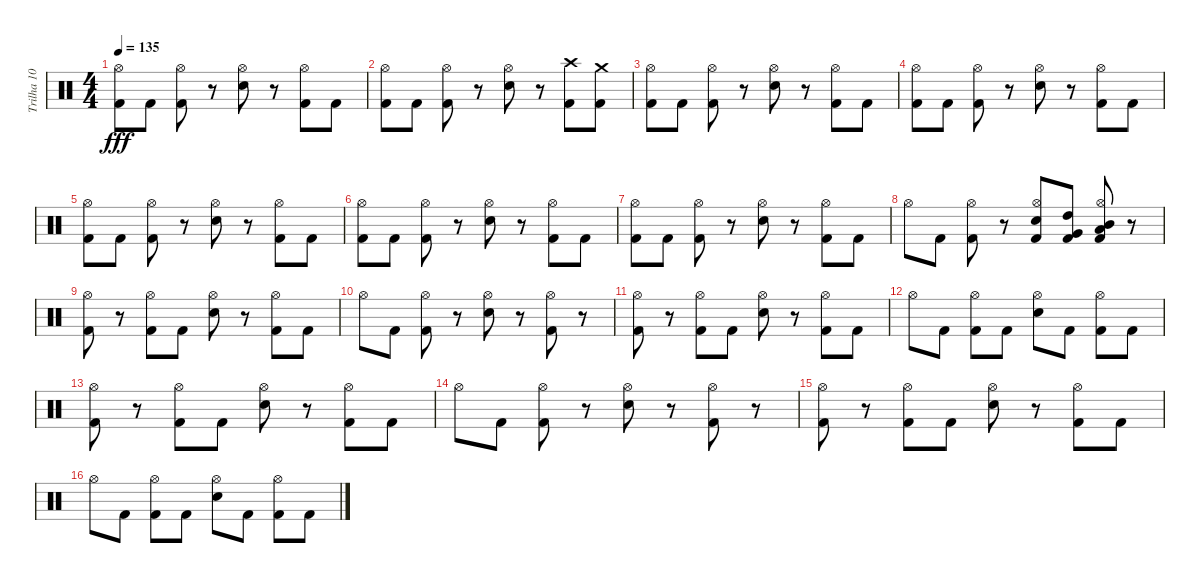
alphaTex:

\track ("Trilha 10" "Trilha 10") {instrument percussion}
\staff {score}
\articulation defaults
\ts (4 4)
\tempo 135
\clef neutral
\ks c
("Kick (hit) 2" "Hi-Hat (open)").8{dy fff} "Kick (hit) 2".8 ("Kick (hit) 2" "Hi-Hat (open)").8 r.8 ("Electric Snare (hit)" "Hi-Hat (open)").8 r.8 ("Kick (hit) 2" "Hi-Hat (open)").8 "Kick (hit) 2".8 |
("Kick (hit) 2" "Hi-Hat (open)").8 "Kick (hit) 2".8 ("Kick (hit) 2" "Hi-Hat (open)").8 r.8 ("Electric Snare (hit)" "Hi-Hat (open)").8 r.8 ("Kick (hit) 2" "Crash high (hit)").8 ("Kick (hit) 2" "Crash medium (hit)").8 |
("Kick (hit) 2" "Hi-Hat (open)").8 "Kick (hit) 2".8 ("Kick (hit) 2" "Hi-Hat (open)").8 r.8 ("Electric Snare (hit)" "Hi-Hat (open)").8 r.8 ("Kick (hit) 2" "Hi-Hat (open)").8 "Kick (hit) 2".8 |
("Kick (hit) 2" "Hi-Hat (open)").8 "Kick (hit) 2".8 ("Kick (hit) 2" "Hi-Hat (open)").8 r.8 ("Electric Snare (hit)" "Hi-Hat (open)").8 r.8 ("Kick (hit) 2" "Hi-Hat (open)").8 "Kick (hit) 2".8 |
("Kick (hit) 2" "Hi-Hat (open)").8 "Kick (hit) 2".8 ("Kick (hit) 2" "Hi-Hat (open)").8 r.8 ("Electric Snare (hit)" "Hi-Hat (open)").8 r.8 ("Kick (hit) 2" "Hi-Hat (open)").8 "Kick (hit) 2".8 |
("Hi-Hat (open)" "Kick (hit) 2").8 "Kick (hit) 2".8 ("Kick (hit) 2" "Hi-Hat (open)").8 r.8 ("Electric Snare (hit)" "Hi-Hat (open)").8 r.8 ("Hi-Hat (open)" "Kick (hit) 2").8 "Kick (hit) 2".8 |
("Hi-Hat (open)" "Kick (hit) 2").8 "Kick (hit) 2".8 ("Hi-Hat (open)" "Kick (hit) 2").8 r.8 ("Hi-Hat (open)" "Electric Snare (hit)").8 r.8 ("Hi-Hat (open)" "Kick (hit) 2").8 "Kick (hit) 2".8 |
"Hi-Hat (open)".8 "Kick (hit) 2".8 ("Hi-Hat (open)" "Kick (hit) 2").8 r.8 ("Kick (hit) 2" "Hi-Hat (open)" "Electric Snare (hit)").8 ("Kick (hit) 2" "Very Low Tom (hit)" "High Tom (hit)").8 ("Kick (hit) 2" "Low Floor Tom (hit)" "Mid Tom (hit)" "Hi-Hat (open)").8 r.8 |
("Hi-Hat (open)" "Kick (hit) 2").8 r.8 ("Hi-Hat (open)" "Kick (hit) 2").8 "Kick (hit) 2".8 ("Hi-Hat (open)" "Electric Snare (hit)").8 r.8 ("Hi-Hat (open)" "Kick (hit) 2").8 "Kick (hit) 2".8 |
"Hi-Hat (open)".8 "Kick (hit) 2".8 ("Hi-Hat (open)" "Kick (hit) 2").8 r.8 ("Hi-Hat (open)" "Electric Snare (hit)").8 r.8 ("Hi-Hat (open)" "Kick (hit) 2").8 r.8 |
("Hi-Hat (open)" "Kick (hit) 2").8 r.8 ("Hi-Hat (open)" "Kick (hit) 2").8 "Kick (hit) 2".8 ("Hi-Hat (open)" "Electric Snare (hit)").8 r.8 ("Hi-Hat (open)" "Kick (hit) 2").8 "Kick (hit) 2".8 |
"Hi-Hat (open)".8 "Kick (hit) 2".8 ("Hi-Hat (open)" "Kick (hit) 2").8 "Kick (hit) 2".8 ("Hi-Hat (open)" "Electric Snare (hit)").8 "Kick (hit) 2".8 ("Hi-Hat (open)" "Kick (hit) 2").8 "Kick (hit) 2".8 |
("Hi-Hat (open)" "Kick (hit) 2").8 r.8 ("Hi-Hat (open)" "Kick (hit) 2").8 "Kick (hit) 2".8 ("Hi-Hat (open)" "Electric Snare (hit)").8 r.8 ("Hi-Hat (open)" "Kick (hit) 2").8 "Kick (hit) 2".8 |
"Hi-Hat (open)".8 "Kick (hit) 2".8 ("Hi-Hat (open)" "Kick (hit) 2").8 r.8 ("Hi-Hat (open)" "Electric Snare (hit)").8 r.8 ("Hi-Hat (open)" "Kick (hit) 2").8 r.8 |
("Hi-Hat (open)" "Kick (hit) 2").8 r.8 ("Hi-Hat (open)" "Kick (hit) 2").8 "Kick (hit) 2".8 ("Electric Snare (hit)" "Hi-Hat (open)").8 r.8 ("Kick (hit) 2" "Hi-Hat (open)").8 "Kick (hit) 2".8 |
"Hi-Hat (open)".8 "Kick (hit) 2".8 ("Hi-Hat (open)" "Kick (hit) 2").8 "Kick (hit) 2".8 ("Hi-Hat (open)" "Electric Snare (hit)").8 "Kick (hit) 2".8 ("Hi-Hat (open)" "Kick (hit) 2").8 "Kick (hit) 2".8
